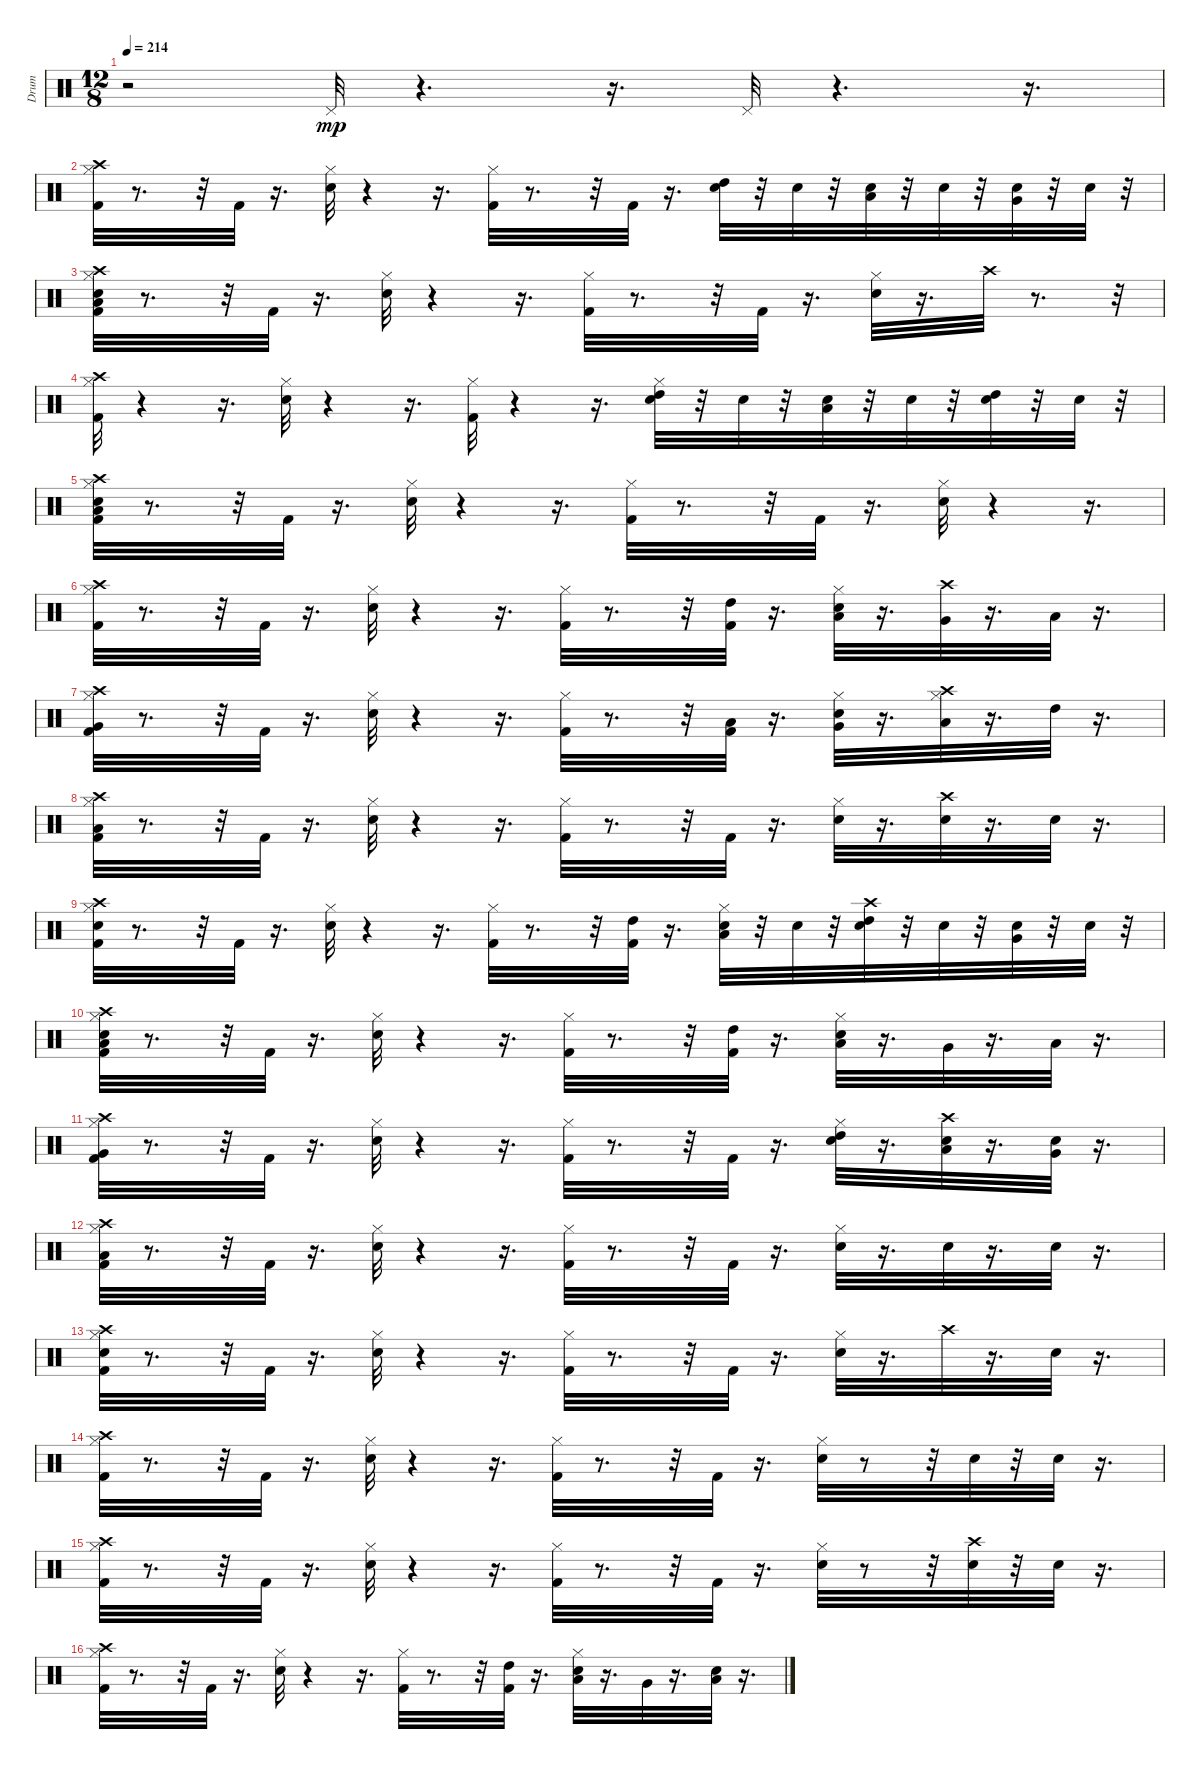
\track ("Drum" "Drum") {instrument percussion}
\staff {score}
\articulation defaults
\ts (12 8)
\tempo 214
\clef neutral
\ks c
r.2{dy mp} "Pedal Hi-Hat (hit)".32{balance 8} r.4{d} r.16{d} "Pedal Hi-Hat (hit)".32 r.4{d} r.16{d} |
("Hi-Hat (closed)" "Kick (hit) 2" "Crash high (hit)").32 r.8{d} r.32 "Kick (hit) 2".32 r.16{d} ("Hi-Hat (closed)" "Snare (hit) 2").32 r.4 r.16{d} ("Hi-Hat (closed)" "Kick (hit) 2").32 r.8{d} r.32 "Kick (hit) 2".32 r.16{d} ("High Tom (hit)" "Electric Snare (hit)").32 r.32 "Snare (hit) 2".32 r.32 ("Low Tom (hit)" "Electric Snare (hit)").32 r.32 "Snare (hit) 2".32 r.32 ("Very Low Tom (hit)" "Electric Snare (hit)").32 r.32 "Snare (hit) 2".32 r.32 |
("Hi-Hat (closed)" "Low Floor Tom (hit)" "Crash high (hit)" "Electric Snare (hit)" "Kick (hit) 2").32 r.8{d} r.32 "Kick (hit) 2".32 r.16{d} ("Hi-Hat (closed)" "Snare (hit) 2").32 r.4 r.16{d} ("Hi-Hat (closed)" "Kick (hit) 2").32 r.8{d} r.32 "Kick (hit) 2".32 r.16{d} ("Hi-Hat (closed)" "Snare (hit) 2").32 r.16{d} "Crash high (hit)".32 r.8{d} r.32 |
("Hi-Hat (closed)" "Crash high (hit)" "Kick (hit) 2").32 r.4 r.16{d} ("Hi-Hat (closed)" "Snare (hit) 2").32 r.4 r.16{d} ("Hi-Hat (closed)" "Kick (hit) 2").32 r.4 r.16{d} ("Hi-Hat (closed)" "High Tom (hit)" "Snare (hit) 2").32 r.32 "Electric Snare (hit)".32 r.32 ("Low Tom (hit)" "Snare (hit) 2").32 r.32 "Electric Snare (hit)".32 r.32 ("High Tom (hit)" "Snare (hit) 2").32 r.32 "Electric Snare (hit)".32 r.32 |
("Hi-Hat (closed)" "Low Floor Tom (hit)" "Snare (hit) 2" "Crash high (hit)" "Kick (hit) 2").32 r.8{d} r.32 "Kick (hit) 2".32 r.16{d} ("Hi-Hat (closed)" "Snare (hit) 2").32 r.4 r.16{d} ("Hi-Hat (closed)" "Kick (hit) 2").32 r.8{d} r.32 "Kick (hit) 2".32 r.16{d} ("Hi-Hat (closed)" "Snare (hit) 2").32 r.4 r.16{d} |
("Hi-Hat (closed)" "Crash high (hit)" "Kick (hit) 2").32 r.8{d} r.32 "Kick (hit) 2".32 r.16{d} ("Hi-Hat (closed)" "Snare (hit) 2").32 r.4 r.16{d} ("Hi-Hat (closed)" "Kick (hit) 2").32 r.8{d} r.32 ("High Tom (hit)" "Kick (hit) 2").32 r.16{d} ("Hi-Hat (closed)" "Low Tom (hit)" "Snare (hit) 2").32 r.16{d} ("Very Low Tom (hit)" "Crash high (hit)").32 r.16{d} "Low Floor Tom (hit)".32 r.16{d} |
("Very Low Tom (hit)" "Hi-Hat (closed)" "Crash high (hit)" "Kick (hit) 2").32 r.8{d} r.32 "Kick (hit) 2".32 r.16{d} ("Hi-Hat (closed)" "Snare (hit) 2").32 r.4 r.16{d} ("Hi-Hat (closed)" "Kick (hit) 2").32 r.8{d} r.32 ("Low Floor Tom (hit)" "Kick (hit) 2").32 r.16{d} ("Hi-Hat (closed)" "Very Low Tom (hit)" "Snare (hit) 2").32 r.16{d} ("Low Tom (hit)" "Crash high (hit)" "Hi-Hat (closed)").32 r.16{d} "High Tom (hit)".32 r.16{d} |
("Low Tom (hit)" "Hi-Hat (closed)" "Crash high (hit)" "Kick (hit) 2").32 r.8{d} r.32 "Kick (hit) 2".32 r.16{d} ("Hi-Hat (closed)" "Snare (hit) 2").32 r.4 r.16{d} ("Hi-Hat (closed)" "Kick (hit) 2").32 r.8{d} r.32 "Kick (hit) 2".32 r.16{d} ("Hi-Hat (closed)" "Snare (hit) 2").32 r.16{d} ("Snare (hit) 2" "Crash high (hit)").32 r.16{d} "Snare (hit) 2".32 r.16{d} |
("Snare (hit) 2" "Hi-Hat (closed)" "Crash high (hit)" "Kick (hit) 2").32 r.8{d} r.32 "Kick (hit) 2".32 r.16{d} ("Hi-Hat (closed)" "Snare (hit) 2").32 r.4 r.16{d} ("Hi-Hat (closed)" "Kick (hit) 2").32 r.8{d} r.32 ("High Tom (hit)" "Kick (hit) 2").32 r.16{d} ("Hi-Hat (closed)" "Low Tom (hit)" "Snare (hit) 2").32 r.32 "Electric Snare (hit)".32 r.32 ("High Tom (hit)" "Crash high (hit)" "Snare (hit) 2").32 r.32 "Electric Snare (hit)".32 r.32 ("Very Low Tom (hit)" "Snare (hit) 2").32 r.32 "Electric Snare (hit)".32 r.32 |
("Low Tom (hit)" "Hi-Hat (closed)" "Snare (hit) 2" "Crash high (hit)" "Kick (hit) 2").32 r.8{d} r.32 "Kick (hit) 2".32 r.16{d} ("Hi-Hat (closed)" "Snare (hit) 2").32 r.4 r.16{d} ("Hi-Hat (closed)" "Kick (hit) 2").32 r.8{d} r.32 ("High Tom (hit)" "Kick (hit) 2").32 r.16{d} ("Hi-Hat (closed)" "Low Tom (hit)" "Snare (hit) 2").32 r.16{d} "Very Low Tom (hit)".32 r.16{d} "Low Floor Tom (hit)".32 r.16{d} |
("Very Low Tom (hit)" "Hi-Hat (closed)" "Crash high (hit)" "Kick (hit) 2").32 r.8{d} r.32 "Kick (hit) 2".32 r.16{d} ("Hi-Hat (closed)" "Snare (hit) 2").32 r.4 r.16{d} ("Hi-Hat (closed)" "Kick (hit) 2").32 r.8{d} r.32 "Kick (hit) 2".32 r.16{d} ("Hi-Hat (closed)" "High Tom (hit)" "Snare (hit) 2").32 r.16{d} ("Low Tom (hit)" "Crash high (hit)" "Snare (hit) 2").32 r.16{d} ("Very Low Tom (hit)" "Snare (hit) 2").32 r.16{d} |
("Low Floor Tom (hit)" "Hi-Hat (closed)" "Crash high (hit)" "Kick (hit) 2").32 r.8{d} r.32 "Kick (hit) 2".32 r.16{d} ("Hi-Hat (closed)" "Snare (hit) 2").32 r.4 r.16{d} ("Hi-Hat (closed)" "Kick (hit) 2").32 r.8{d} r.32 "Kick (hit) 2".32 r.16{d} ("Hi-Hat (closed)" "Snare (hit) 2").32 r.16{d} "Electric Snare (hit)".32 r.16{d} "Snare (hit) 2".32 r.16{d} |
("Electric Snare (hit)" "Hi-Hat (closed)" "Crash high (hit)" "Kick (hit) 2").32 r.8{d} r.32 "Kick (hit) 2".32 r.16{d} ("Hi-Hat (closed)" "Snare (hit) 2").32 r.4 r.16{d} ("Hi-Hat (closed)" "Kick (hit) 2").32 r.8{d} r.32 "Kick (hit) 2".32 r.16{d} ("Hi-Hat (closed)" "Snare (hit) 2").32 r.16{d} "Crash high (hit)".32 r.16{d} "Snare (hit) 2".32 r.16{d} |
("Hi-Hat (closed)" "Crash high (hit)" "Kick (hit) 2").32 r.8{d} r.32 "Kick (hit) 2".32 r.16{d} ("Hi-Hat (closed)" "Snare (hit) 2").32 r.4 r.16{d} ("Hi-Hat (closed)" "Kick (hit) 2").32 r.8{d} r.32 "Kick (hit) 2".32 r.16{d} ("Hi-Hat (closed)" "Snare (hit) 2").32 r.8 r.32 "Snare (hit) 2".32 r.32 "Snare (hit) 2".32 r.16{d} |
("Hi-Hat (closed)" "Crash high (hit)" "Kick (hit) 2").32 r.8{d} r.32 "Kick (hit) 2".32 r.16{d} ("Hi-Hat (closed)" "Snare (hit) 2").32 r.4 r.16{d} ("Hi-Hat (closed)" "Kick (hit) 2").32 r.8{d} r.32 "Kick (hit) 2".32 r.16{d} ("Hi-Hat (closed)" "Snare (hit) 2").32 r.8 r.32 ("Snare (hit) 2" "Crash high (hit)").32 r.32 "Snare (hit) 2".32 r.16{d} |
("Hi-Hat (closed)" "Crash high (hit)" "Kick (hit) 2").32 r.8{d} r.32 "Kick (hit) 2".32 r.16{d} ("Hi-Hat (closed)" "Snare (hit) 2").32 r.4 r.16{d} ("Hi-Hat (closed)" "Kick (hit) 2").32 r.8{d} r.32 ("High Tom (hit)" "Kick (hit) 2").32 r.16{d} ("Hi-Hat (closed)" "Low Tom (hit)" "Snare (hit) 2").32 r.16{d} "Very Low Tom (hit)".32 r.16{d} ("Low Floor Tom (hit)" "Snare (hit) 2").32 r.16{d}
